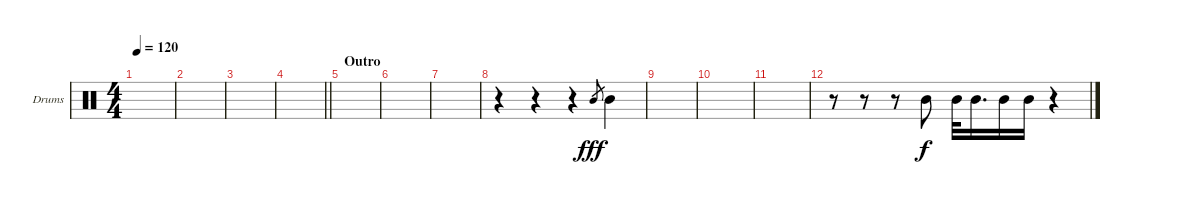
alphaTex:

\defaultSystemsLayout 4
\bracketExtendMode groupsimilarinstruments
\firstSystemTrackNameOrientation horizontal
\otherSystemsTrackNameOrientation horizontal
\track ("Drums Aux" "Drums") {instrument percussion}
\staff {score}
\articulation defaults
\ts (4 4)
\tempo 120
\clef neutral
\ks c
|
|
|
\barLineRight lightlight
|
\section ("" "Outro")
|
|
|
r.4 r.4 r.4 "Mid Tom (hit)".8{gr dy fff} "Mid Tom (hit)".4 |
|
|
|
r.8 r.8 r.8 "Mid Tom (hit)".8{dy f} "Mid Tom (hit)".32 "Mid Tom (hit)".16{d} "Mid Tom (hit)".16 "Mid Tom (hit)".16 r.4
